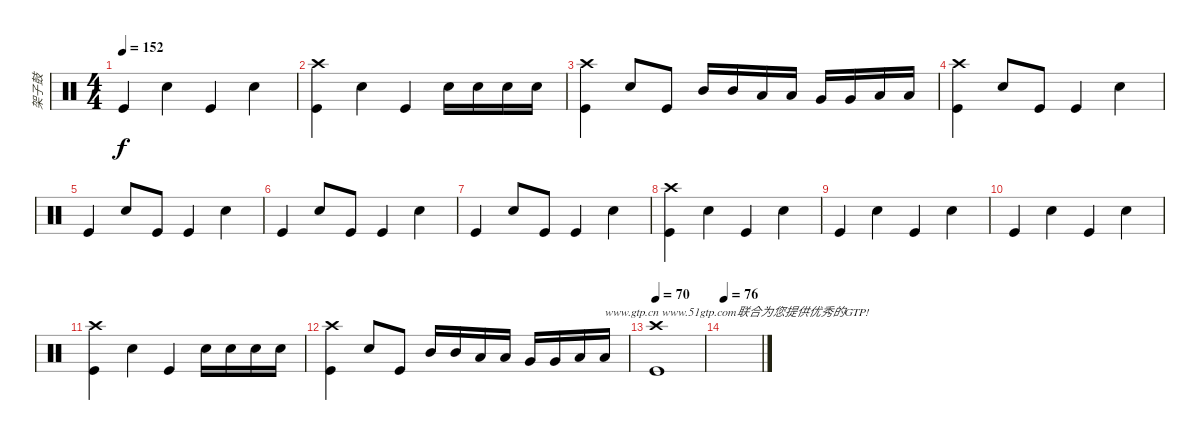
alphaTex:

\track ("架子鼓" "架子鼓") {instrument percussion}
\staff {score}
\articulation defaults
\ts (4 4)
\tempo 152
\clef neutral
\ks c "Kick (hit)".4{dy f} "Electric Snare (hit)".4 "Kick (hit)".4 "Electric Snare (hit)".4
|
("Crash high (hit)" "Kick (hit)").4 "Electric Snare (hit)".4 "Kick (hit)".4 "Electric Snare (hit)".16 "Electric Snare (hit)".16 "Electric Snare (hit)".16 "Electric Snare (hit)".16 |
("Crash high (hit)" "Kick (hit)").4 "Electric Snare (hit)".8 "Kick (hit)".8 "Mid Tom (hit)".16 "Mid Tom (hit)".16 "Low Tom (hit)".16 "Low Tom (hit)".16 "Very Low Tom (hit)".16 "Very Low Tom (hit)".16 "Low Floor Tom (hit)".16 "Low Floor Tom (hit)".16 |
("Crash high (hit)" "Kick (hit)").4 "Electric Snare (hit)".8 "Kick (hit)".8 "Kick (hit)".4 "Electric Snare (hit)".4 |
"Kick (hit)".4 "Electric Snare (hit)".8 "Kick (hit)".8 "Kick (hit)".4 "Electric Snare (hit)".4 |
"Kick (hit)".4 "Electric Snare (hit)".8 "Kick (hit)".8 "Kick (hit)".4 "Electric Snare (hit)".4 |
"Kick (hit)".4 "Electric Snare (hit)".8 "Kick (hit)".8 "Kick (hit)".4 "Electric Snare (hit)".4 |
("Crash high (hit)" "Kick (hit)").4 "Electric Snare (hit)".4 "Kick (hit)".4 "Electric Snare (hit)".4 |
"Kick (hit)".4 "Electric Snare (hit)".4 "Kick (hit)".4 "Electric Snare (hit)".4 |
"Kick (hit)".4 "Electric Snare (hit)".4 "Kick (hit)".4 "Electric Snare (hit)".4 |
("Crash high (hit)" "Kick (hit)").4 "Electric Snare (hit)".4 "Kick (hit)".4 "Electric Snare (hit)".16 "Electric Snare (hit)".16 "Electric Snare (hit)".16 "Electric Snare (hit)".16 |
("Crash high (hit)" "Kick (hit)").4 "Electric Snare (hit)".8 "Kick (hit)".8 "Mid Tom (hit)".16 "Mid Tom (hit)".16 "Low Tom (hit)".16 "Low Tom (hit)".16 "Very Low Tom (hit)".16 "Very Low Tom (hit)".16 "Low Floor Tom (hit)".16 "Low Floor Tom (hit)".16{txt "www.gtp.cn www.51gtp.com联合为您提供优秀的GTP!"} |
\tempo 70
("Crash high (hit)" "Kick (hit)").1 |
\tempo 76
